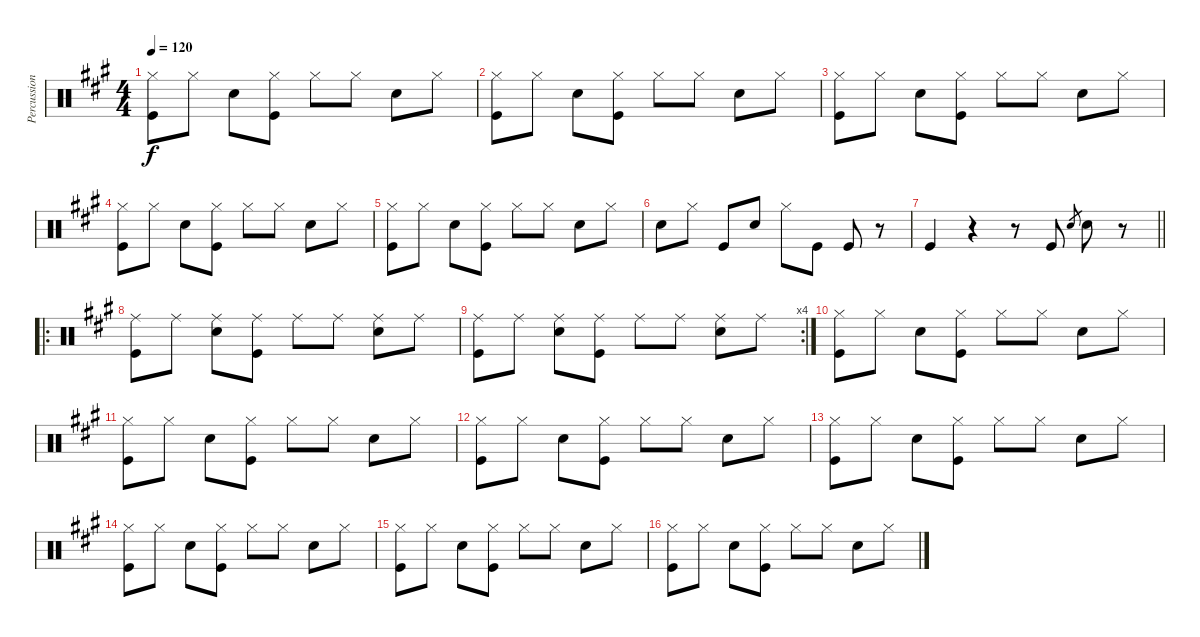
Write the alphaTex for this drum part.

\track ("Percussions" "Percussion") {instrument percussion}
\staff {score}
\articulation defaults
\ts (4 4)
\tempo 120
\clef neutral
\ks a
("Kick (hit)" "Hi-Hat (closed)").8{dy f} "Hi-Hat (closed)".8 "Snare (hit) 2".8 ("Hi-Hat (closed)" "Kick (hit)").8 "Hi-Hat (closed)".8 "Hi-Hat (closed)".8 "Snare (hit) 2".8 "Hi-Hat (closed)".8 |
("Kick (hit)" "Hi-Hat (closed)").8 "Hi-Hat (closed)".8 "Snare (hit) 2".8 ("Hi-Hat (closed)" "Kick (hit)").8 "Hi-Hat (closed)".8 "Hi-Hat (closed)".8 "Snare (hit) 2".8 "Hi-Hat (closed)".8 |
("Kick (hit)" "Hi-Hat (closed)").8 "Hi-Hat (closed)".8 "Snare (hit) 2".8 ("Hi-Hat (closed)" "Kick (hit)").8 "Hi-Hat (closed)".8 "Hi-Hat (closed)".8 "Snare (hit) 2".8 "Hi-Hat (closed)".8 |
("Kick (hit)" "Hi-Hat (closed)").8 "Hi-Hat (closed)".8 "Snare (hit) 2".8 ("Hi-Hat (closed)" "Kick (hit)").8 "Hi-Hat (closed)".8 "Hi-Hat (closed)".8 "Snare (hit) 2".8 "Hi-Hat (closed)".8 |
("Kick (hit)" "Hi-Hat (closed)").8 "Hi-Hat (closed)".8 "Snare (hit) 2".8 ("Hi-Hat (closed)" "Kick (hit)").8 "Hi-Hat (closed)".8 "Hi-Hat (closed)".8 "Snare (hit) 2".8 "Hi-Hat (closed)".8 |
"Snare (hit) 2".8 "Hi-Hat (closed)".8 "Kick (hit)".8 "Snare (hit) 2".8 "Hi-Hat (closed)".8 "Kick (hit)".8 "Kick (hit)".8 r.8 |
\barLineRight lightlight "Kick (hit)".4
r.4 r.8 "Kick (hit)".8 "Snare (hit) 2".8{gr} "Snare (hit) 2".8 r.8 |
\ro
("Kick (hit)" "Ride (middle)").8 "Ride (middle)".8 ("Snare (hit) 2" "Ride (middle)").8 ("Kick (hit)" "Ride (middle)").8 "Ride (middle)".8 "Ride (middle)".8 ("Ride (middle)" "Snare (hit) 2").8 "Ride (middle)".8 |
\rc 4
("Kick (hit)" "Ride (middle)").8 "Ride (middle)".8 ("Snare (hit) 2" "Ride (middle)").8 ("Kick (hit)" "Ride (middle)").8 "Ride (middle)".8 "Ride (middle)".8 ("Ride (middle)" "Snare (hit) 2").8 "Ride (middle)".8 |
("Kick (hit)" "Hi-Hat (closed)").8 "Hi-Hat (closed)".8 "Snare (hit) 2".8 ("Hi-Hat (closed)" "Kick (hit)").8 "Hi-Hat (closed)".8 "Hi-Hat (closed)".8 "Snare (hit) 2".8 "Hi-Hat (closed)".8 |
("Kick (hit)" "Hi-Hat (closed)").8 "Hi-Hat (closed)".8 "Snare (hit) 2".8 ("Hi-Hat (closed)" "Kick (hit)").8 "Hi-Hat (closed)".8 "Hi-Hat (closed)".8 "Snare (hit) 2".8 "Hi-Hat (closed)".8 |
("Kick (hit)" "Hi-Hat (closed)").8 "Hi-Hat (closed)".8 "Snare (hit) 2".8 ("Hi-Hat (closed)" "Kick (hit)").8 "Hi-Hat (closed)".8 "Hi-Hat (closed)".8 "Snare (hit) 2".8 "Hi-Hat (closed)".8 |
("Kick (hit)" "Hi-Hat (closed)").8 "Hi-Hat (closed)".8 "Snare (hit) 2".8 ("Hi-Hat (closed)" "Kick (hit)").8 "Hi-Hat (closed)".8 "Hi-Hat (closed)".8 "Snare (hit) 2".8 "Hi-Hat (closed)".8 |
("Kick (hit)" "Hi-Hat (closed)").8 "Hi-Hat (closed)".8 "Snare (hit) 2".8 ("Hi-Hat (closed)" "Kick (hit)").8 "Hi-Hat (closed)".8 "Hi-Hat (closed)".8 "Snare (hit) 2".8 "Hi-Hat (closed)".8 |
("Kick (hit)" "Hi-Hat (closed)").8 "Hi-Hat (closed)".8 "Snare (hit) 2".8 ("Hi-Hat (closed)" "Kick (hit)").8 "Hi-Hat (closed)".8 "Hi-Hat (closed)".8 "Snare (hit) 2".8 "Hi-Hat (closed)".8 |
("Kick (hit)" "Hi-Hat (closed)").8 "Hi-Hat (closed)".8 "Snare (hit) 2".8 ("Hi-Hat (closed)" "Kick (hit)").8 "Hi-Hat (closed)".8 "Hi-Hat (closed)".8 "Snare (hit) 2".8 "Hi-Hat (closed)".8
